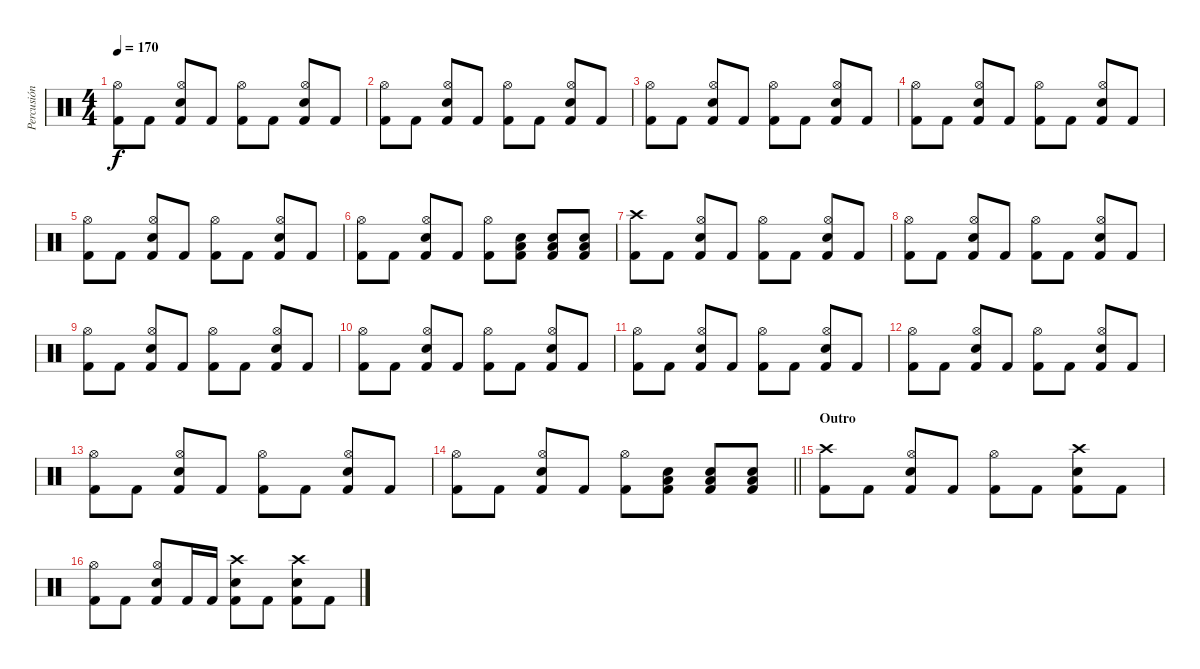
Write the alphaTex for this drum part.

\track ("Percusión" "Percusión") {instrument percussion}
\staff {score}
\articulation defaults
\ts (4 4)
\tempo 170
\clef neutral
\ks c
("Kick (hit) 2" "Hi-Hat (open)").8{dy f} "Kick (hit) 2".8 ("Kick (hit) 2" "Snare (hit) 2" "Hi-Hat (open)").8 "Kick (hit) 2".8 ("Kick (hit) 2" "Hi-Hat (open)").8 "Kick (hit) 2".8 ("Kick (hit) 2" "Snare (hit) 2" "Hi-Hat (open)").8 "Kick (hit) 2".8 |
("Kick (hit) 2" "Hi-Hat (open)").8 "Kick (hit) 2".8 ("Kick (hit) 2" "Snare (hit) 2" "Hi-Hat (open)").8 "Kick (hit) 2".8 ("Kick (hit) 2" "Hi-Hat (open)").8 "Kick (hit) 2".8 ("Kick (hit) 2" "Snare (hit) 2" "Hi-Hat (open)").8 "Kick (hit) 2".8 |
("Kick (hit) 2" "Hi-Hat (open)").8 "Kick (hit) 2".8 ("Kick (hit) 2" "Snare (hit) 2" "Hi-Hat (open)").8 "Kick (hit) 2".8 ("Kick (hit) 2" "Hi-Hat (open)").8 "Kick (hit) 2".8 ("Kick (hit) 2" "Snare (hit) 2" "Hi-Hat (open)").8 "Kick (hit) 2".8 |
("Kick (hit) 2" "Hi-Hat (open)").8 "Kick (hit) 2".8 ("Kick (hit) 2" "Snare (hit) 2" "Hi-Hat (open)").8 "Kick (hit) 2".8 ("Kick (hit) 2" "Hi-Hat (open)").8 "Kick (hit) 2".8 ("Kick (hit) 2" "Snare (hit) 2" "Hi-Hat (open)").8 "Kick (hit) 2".8 |
("Kick (hit) 2" "Hi-Hat (open)").8 "Kick (hit) 2".8 ("Kick (hit) 2" "Snare (hit) 2" "Hi-Hat (open)").8 "Kick (hit) 2".8 ("Kick (hit) 2" "Hi-Hat (open)").8 "Kick (hit) 2".8 ("Kick (hit) 2" "Snare (hit) 2" "Hi-Hat (open)").8 "Kick (hit) 2".8 |
("Kick (hit) 2" "Hi-Hat (open)").8 "Kick (hit) 2".8 ("Kick (hit) 2" "Snare (hit) 2" "Hi-Hat (open)").8 "Kick (hit) 2".8 ("Kick (hit) 2" "Hi-Hat (open)").8 ("Kick (hit) 2" "Snare (hit) 2" "Low Floor Tom (hit)").8 ("Kick (hit) 2" "Snare (hit) 2" "Low Floor Tom (hit)").8 ("Kick (hit) 2" "Snare (hit) 2" "Low Floor Tom (hit)").8 |
("Kick (hit) 2" "Crash high (hit)").8 "Kick (hit) 2".8 ("Kick (hit) 2" "Snare (hit) 2" "Hi-Hat (open)").8 "Kick (hit) 2".8 ("Kick (hit) 2" "Hi-Hat (open)").8 "Kick (hit) 2".8 ("Kick (hit) 2" "Snare (hit) 2" "Hi-Hat (open)").8 "Kick (hit) 2".8 |
("Kick (hit) 2" "Hi-Hat (open)").8 "Kick (hit) 2".8 ("Kick (hit) 2" "Snare (hit) 2" "Hi-Hat (open)").8 "Kick (hit) 2".8 ("Kick (hit) 2" "Hi-Hat (open)").8 "Kick (hit) 2".8 ("Kick (hit) 2" "Snare (hit) 2" "Hi-Hat (open)").8 "Kick (hit) 2".8 |
("Kick (hit) 2" "Hi-Hat (open)").8 "Kick (hit) 2".8 ("Kick (hit) 2" "Snare (hit) 2" "Hi-Hat (open)").8 "Kick (hit) 2".8 ("Kick (hit) 2" "Hi-Hat (open)").8 "Kick (hit) 2".8 ("Kick (hit) 2" "Snare (hit) 2" "Hi-Hat (open)").8 "Kick (hit) 2".8 |
("Kick (hit) 2" "Hi-Hat (open)").8 "Kick (hit) 2".8 ("Kick (hit) 2" "Snare (hit) 2" "Hi-Hat (open)").8 "Kick (hit) 2".8 ("Kick (hit) 2" "Hi-Hat (open)").8 "Kick (hit) 2".8 ("Kick (hit) 2" "Snare (hit) 2" "Hi-Hat (open)").8 "Kick (hit) 2".8 |
("Kick (hit) 2" "Hi-Hat (open)").8 "Kick (hit) 2".8 ("Kick (hit) 2" "Snare (hit) 2" "Hi-Hat (open)").8 "Kick (hit) 2".8 ("Kick (hit) 2" "Hi-Hat (open)").8 "Kick (hit) 2".8 ("Kick (hit) 2" "Snare (hit) 2" "Hi-Hat (open)").8 "Kick (hit) 2".8 |
("Kick (hit) 2" "Hi-Hat (open)").8 "Kick (hit) 2".8 ("Kick (hit) 2" "Snare (hit) 2" "Hi-Hat (open)").8 "Kick (hit) 2".8 ("Kick (hit) 2" "Hi-Hat (open)").8 "Kick (hit) 2".8 ("Kick (hit) 2" "Snare (hit) 2" "Hi-Hat (open)").8 "Kick (hit) 2".8 |
("Kick (hit) 2" "Hi-Hat (open)").8 "Kick (hit) 2".8 ("Kick (hit) 2" "Snare (hit) 2" "Hi-Hat (open)").8 "Kick (hit) 2".8 ("Kick (hit) 2" "Hi-Hat (open)").8 "Kick (hit) 2".8 ("Kick (hit) 2" "Snare (hit) 2" "Hi-Hat (open)").8 "Kick (hit) 2".8 |
\barLineRight lightlight
("Kick (hit) 2" "Hi-Hat (open)").8 "Kick (hit) 2".8 ("Kick (hit) 2" "Snare (hit) 2" "Hi-Hat (open)").8 "Kick (hit) 2".8 ("Kick (hit) 2" "Hi-Hat (open)").8 ("Kick (hit) 2" "Snare (hit) 2" "Low Floor Tom (hit)").8 ("Kick (hit) 2" "Snare (hit) 2" "Low Floor Tom (hit)").8 ("Kick (hit) 2" "Snare (hit) 2" "Low Floor Tom (hit)").8 |
\section ("" "Outro")
("Kick (hit) 2" "Crash high (hit)").8 "Kick (hit) 2".8 ("Kick (hit) 2" "Snare (hit) 2" "Hi-Hat (open)").8 "Kick (hit) 2".8 ("Kick (hit) 2" "Hi-Hat (open)").8 "Kick (hit) 2".8 ("Kick (hit) 2" "Snare (hit) 2" "Crash high (hit)").8 "Kick (hit) 2".8 |
("Kick (hit) 2" "Hi-Hat (open)").8 "Kick (hit) 2".8 ("Kick (hit) 2" "Snare (hit) 2" "Hi-Hat (open)").8 "Kick (hit) 2".16 "Kick (hit) 2".16 ("Kick (hit) 2" "Snare (hit) 2" "Crash high (hit)").8 "Kick (hit) 2".8 ("Kick (hit) 2" "Snare (hit) 2" "Crash high (hit)").8 "Kick (hit) 2".8
